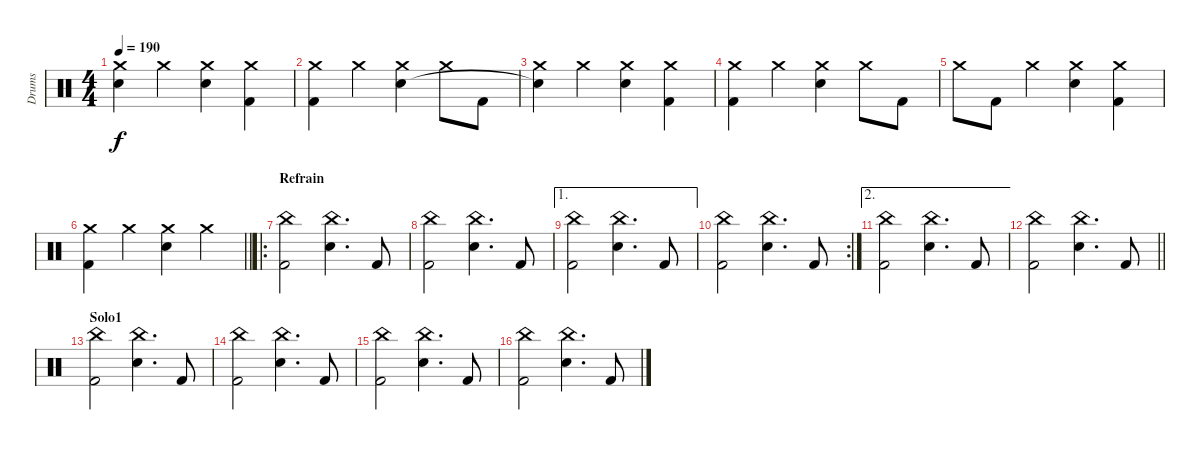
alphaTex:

\track ("Drums" "Drums") {instrument percussion}
\staff {score}
\articulation defaults
\ts (4 4)
\tempo 190
\clef neutral
\ks c
("Crash medium (hit)" "Snare (hit)"{t}).4{dy f} "Crash medium (hit)".4 ("Crash medium (hit)" "Snare (hit) 2").4 ("Crash medium (hit)" "Kick (hit) 2").4 |
("Crash medium (hit)" "Kick (hit) 2").4 "Crash medium (hit)".4 ("Crash medium (hit)" "Snare (hit) 2").4 "Crash medium (hit)".8 "Kick (hit) 2".8 |
("Crash medium (hit)" "Snare (hit)"{t}).4 "Crash medium (hit)".4 ("Crash medium (hit)" "Snare (hit) 2").4 ("Crash medium (hit)" "Kick (hit) 2").4 |
("Crash medium (hit)" "Kick (hit) 2").4 "Crash medium (hit)".4 ("Crash medium (hit)" "Snare (hit) 2").4 "Crash medium (hit)".8 "Kick (hit) 2".8 |
"Crash medium (hit)".8 "Kick (hit) 2".8 "Crash medium (hit)".4 ("Crash medium (hit)" "Snare (hit) 2").4 ("Crash medium (hit)" "Kick (hit) 2").4 |
\barLineRight lightlight
("Crash medium (hit)" "Kick (hit) 2").4 "Crash medium (hit)".4 ("Crash medium (hit)" "Snare (hit) 2").4 "Crash medium (hit)".4 |
\ro
\section ("" "Refrain")
("China (hit)" "Kick (hit) 2").2 ("China (hit)" "Snare (hit) 2").4{d} "Kick (hit) 2".8 |
("China (hit)" "Kick (hit) 2").2 ("China (hit)" "Snare (hit) 2").4{d} "Kick (hit) 2".8 |
\ae 1
("China (hit)" "Kick (hit) 2").2 ("China (hit)" "Snare (hit) 2").4{d} "Kick (hit) 2".8 |
\rc 2
("China (hit)" "Kick (hit) 2").2 ("China (hit)" "Snare (hit) 2").4{d} "Kick (hit) 2".8 |
\ae 2
("China (hit)" "Kick (hit) 2").2 ("China (hit)" "Snare (hit) 2").4{d} "Kick (hit) 2".8 |
\barLineRight lightlight
("China (hit)" "Kick (hit) 2").2 ("China (hit)" "Snare (hit) 2").4{d} "Kick (hit) 2".8 |
\section ("" "Solo1")
("China (hit)" "Kick (hit) 2").2 ("China (hit)" "Snare (hit) 2").4{d} "Kick (hit) 2".8 |
("China (hit)" "Kick (hit) 2").2 ("China (hit)" "Snare (hit) 2").4{d} "Kick (hit) 2".8 |
("China (hit)" "Kick (hit) 2").2 ("China (hit)" "Snare (hit) 2").4{d} "Kick (hit) 2".8 |
("China (hit)" "Kick (hit) 2").2 ("China (hit)" "Snare (hit) 2").4{d} "Kick (hit) 2".8
